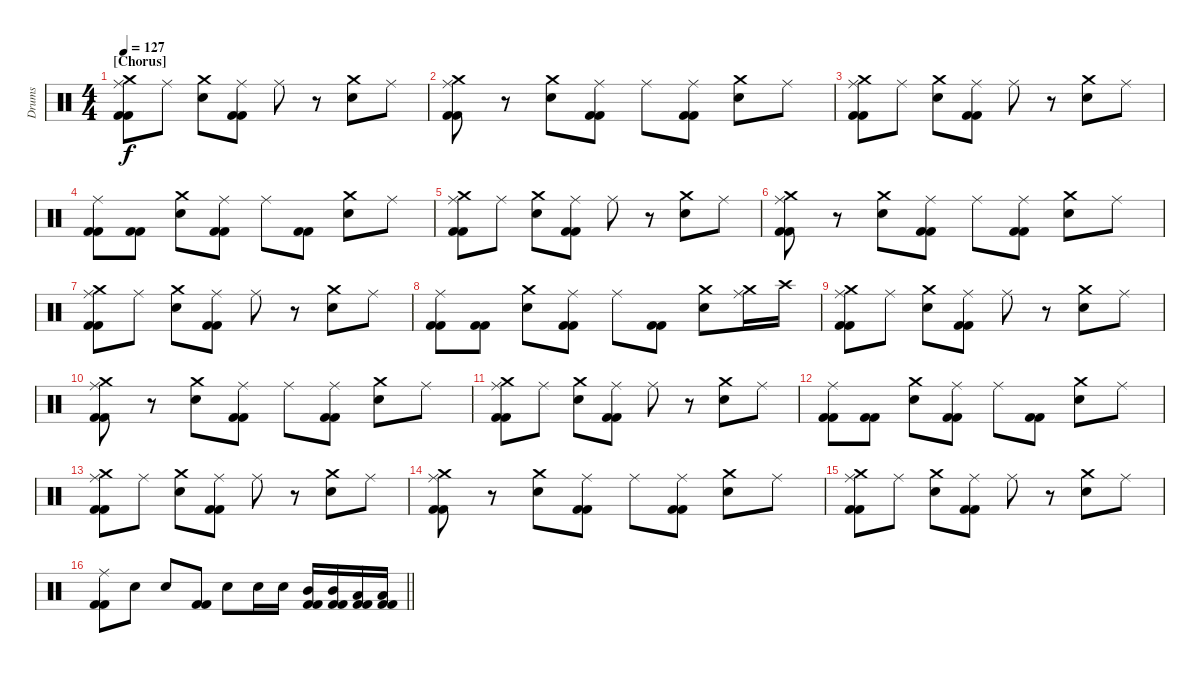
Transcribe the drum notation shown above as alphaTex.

\track ("Drums" "Drums") {instrument percussion}
\staff {score}
\articulation defaults
\ts (4 4)
\section ("" "[Chorus]")
\tempo 127
\clef neutral
\ks c
("Ride (middle)" "Crash medium (hit)" "Kick (hit) 2" "Kick (hit) 2").8{dy f} "Ride (middle)".8 ("Crash medium (hit)" "Electric Snare (hit)").8 ("Ride (middle)" "Kick (hit) 2" "Kick (hit) 2").8 "Ride (middle)".8 r.8 ("Crash medium (hit)" "Electric Snare (hit)").8 "Ride (middle)".8 |
("Ride (middle)" "Crash medium (hit)" "Kick (hit) 2" "Kick (hit) 2").8 r.8 ("Crash medium (hit)" "Electric Snare (hit)").8 ("Ride (middle)" "Kick (hit) 2" "Kick (hit) 2").8 "Ride (middle)".8 ("Ride (middle)" "Kick (hit) 2" "Kick (hit) 2").8 ("Crash medium (hit)" "Electric Snare (hit)").8 "Ride (middle)".8 |
("Ride (middle)" "Crash medium (hit)" "Kick (hit) 2" "Kick (hit) 2").8 "Ride (middle)".8 ("Crash medium (hit)" "Electric Snare (hit)").8 ("Ride (middle)" "Kick (hit) 2" "Kick (hit) 2").8 "Ride (middle)".8 r.8 ("Crash medium (hit)" "Electric Snare (hit)").8 "Ride (middle)".8 |
("Ride (middle)" "Kick (hit) 2" "Kick (hit) 2").8 ("Kick (hit) 2" "Kick (hit) 2").8 ("Crash medium (hit)" "Electric Snare (hit)").8 ("Ride (middle)" "Kick (hit) 2" "Kick (hit) 2").8 "Ride (middle)".8 ("Kick (hit) 2" "Kick (hit) 2").8 ("Crash medium (hit)" "Electric Snare (hit)").8 "Ride (middle)".8 |
("Ride (middle)" "Crash medium (hit)" "Kick (hit) 2" "Kick (hit) 2").8 "Ride (middle)".8 ("Crash medium (hit)" "Electric Snare (hit)").8 ("Ride (middle)" "Kick (hit) 2" "Kick (hit) 2").8 "Ride (middle)".8 r.8 ("Crash medium (hit)" "Electric Snare (hit)").8 "Ride (middle)".8 |
("Ride (middle)" "Crash medium (hit)" "Kick (hit) 2" "Kick (hit) 2").8 r.8 ("Crash medium (hit)" "Electric Snare (hit)").8 ("Ride (middle)" "Kick (hit) 2" "Kick (hit) 2").8 "Ride (middle)".8 ("Ride (middle)" "Kick (hit) 2" "Kick (hit) 2").8 ("Crash medium (hit)" "Electric Snare (hit)").8 "Ride (middle)".8 |
("Ride (middle)" "Crash medium (hit)" "Kick (hit) 2" "Kick (hit) 2").8 "Ride (middle)".8 ("Crash medium (hit)" "Electric Snare (hit)").8 ("Ride (middle)" "Kick (hit) 2" "Kick (hit) 2").8 "Ride (middle)".8 r.8 ("Crash medium (hit)" "Electric Snare (hit)").8 "Ride (middle)".8 |
("Ride (middle)" "Kick (hit) 2" "Kick (hit) 2").8 ("Kick (hit) 2" "Kick (hit) 2").8 ("Crash medium (hit)" "Electric Snare (hit)").8 ("Ride (middle)" "Kick (hit) 2" "Kick (hit) 2").8 "Ride (middle)".8 ("Kick (hit) 2" "Kick (hit) 2").8 ("Crash medium (hit)" "Electric Snare (hit)").8 ("Ride (middle)" "Crash medium (hit)").16 "Crash high (hit)".16 |
("Ride (middle)" "Crash medium (hit)" "Kick (hit) 2" "Kick (hit) 2").8 "Ride (middle)".8 ("Crash medium (hit)" "Electric Snare (hit)").8 ("Ride (middle)" "Kick (hit) 2" "Kick (hit) 2").8 "Ride (middle)".8 r.8 ("Crash medium (hit)" "Electric Snare (hit)").8 "Ride (middle)".8 |
("Ride (middle)" "Crash medium (hit)" "Kick (hit) 2" "Kick (hit) 2").8 r.8 ("Crash medium (hit)" "Electric Snare (hit)").8 ("Ride (middle)" "Kick (hit) 2" "Kick (hit) 2").8 "Ride (middle)".8 ("Ride (middle)" "Kick (hit) 2" "Kick (hit) 2").8 ("Crash medium (hit)" "Electric Snare (hit)").8 "Ride (middle)".8 |
("Ride (middle)" "Crash medium (hit)" "Kick (hit) 2" "Kick (hit) 2").8 "Ride (middle)".8 ("Crash medium (hit)" "Electric Snare (hit)").8 ("Ride (middle)" "Kick (hit) 2" "Kick (hit) 2").8 "Ride (middle)".8 r.8 ("Crash medium (hit)" "Electric Snare (hit)").8 "Ride (middle)".8 |
("Ride (middle)" "Kick (hit) 2" "Kick (hit) 2").8 ("Kick (hit) 2" "Kick (hit) 2").8 ("Crash medium (hit)" "Electric Snare (hit)").8 ("Ride (middle)" "Kick (hit) 2" "Kick (hit) 2").8 "Ride (middle)".8 ("Kick (hit) 2" "Kick (hit) 2").8 ("Crash medium (hit)" "Electric Snare (hit)").8 "Ride (middle)".8 |
("Ride (middle)" "Crash medium (hit)" "Kick (hit) 2" "Kick (hit) 2").8 "Ride (middle)".8 ("Crash medium (hit)" "Electric Snare (hit)").8 ("Ride (middle)" "Kick (hit) 2" "Kick (hit) 2").8 "Ride (middle)".8 r.8 ("Crash medium (hit)" "Electric Snare (hit)").8 "Ride (middle)".8 |
("Ride (middle)" "Crash medium (hit)" "Kick (hit) 2" "Kick (hit) 2").8 r.8 ("Crash medium (hit)" "Electric Snare (hit)").8 ("Ride (middle)" "Kick (hit) 2" "Kick (hit) 2").8 "Ride (middle)".8 ("Ride (middle)" "Kick (hit) 2" "Kick (hit) 2").8 ("Crash medium (hit)" "Electric Snare (hit)").8 "Ride (middle)".8 |
("Ride (middle)" "Crash medium (hit)" "Kick (hit) 2" "Kick (hit) 2").8 "Ride (middle)".8 ("Crash medium (hit)" "Electric Snare (hit)").8 ("Ride (middle)" "Kick (hit) 2" "Kick (hit) 2").8 "Ride (middle)".8 r.8 ("Crash medium (hit)" "Electric Snare (hit)").8 "Ride (middle)".8 |
\barLineRight lightlight
("Ride (middle)" "Kick (hit) 2" "Kick (hit) 2").8 "Electric Snare (hit)".8 "Electric Snare (hit)".8 ("Kick (hit) 2" "Kick (hit) 2").8 "Electric Snare (hit)".8 "Electric Snare (hit)".16 "Electric Snare (hit)".16 ("Mid Tom (hit)" "Kick (hit) 2" "Kick (hit) 2").16 ("Mid Tom (hit)" "Kick (hit) 2" "Kick (hit) 2").16 ("Low Tom (hit)" "Kick (hit) 2" "Kick (hit) 2").16 ("Low Tom (hit)" "Kick (hit) 2" "Kick (hit) 2").16
